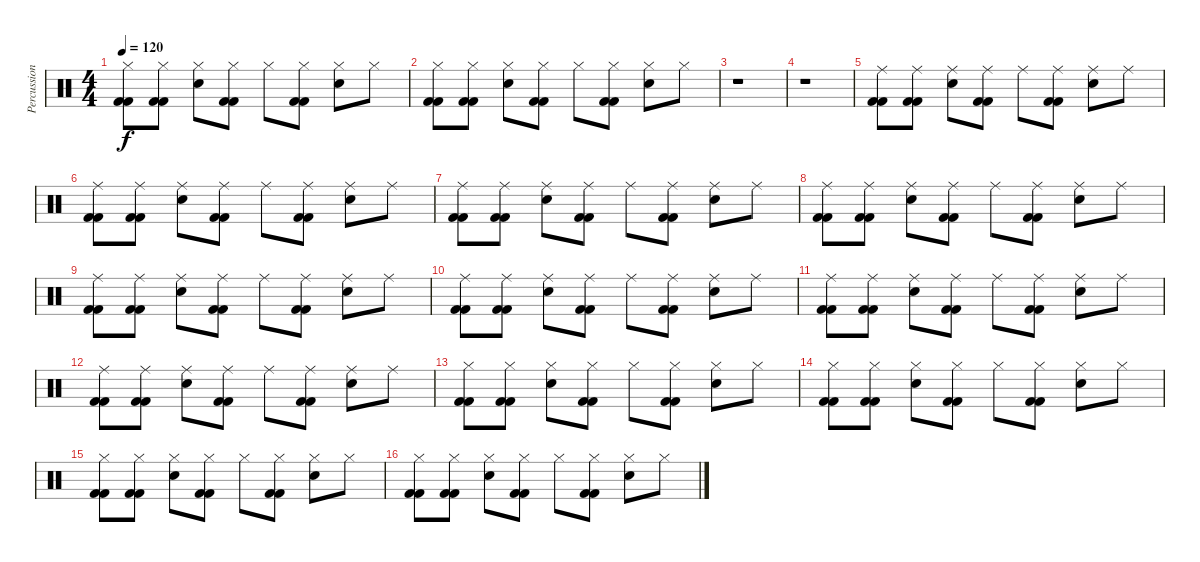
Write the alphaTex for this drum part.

\track ("Percussion" "Percussion") {instrument percussion}
\staff {score}
\articulation defaults
\ts (4 4)
\tempo 120
\clef neutral
\ks c
("Hi-Hat (closed)" "Kick (hit) 2" "Kick (hit) 2").8{dy f} ("Hi-Hat (closed)" "Kick (hit) 2" "Kick (hit) 2").8 ("Hi-Hat (closed)" "Snare (hit) 2").8 ("Hi-Hat (closed)" "Kick (hit) 2" "Kick (hit) 2").8 "Hi-Hat (closed)".8 ("Hi-Hat (closed)" "Kick (hit) 2" "Kick (hit) 2").8 ("Hi-Hat (closed)" "Snare (hit) 2").8 "Hi-Hat (closed)".8 |
("Hi-Hat (closed)" "Kick (hit) 2" "Kick (hit) 2").8 ("Hi-Hat (closed)" "Kick (hit) 2" "Kick (hit) 2").8 ("Hi-Hat (closed)" "Snare (hit) 2").8 ("Hi-Hat (closed)" "Kick (hit) 2" "Kick (hit) 2").8 "Hi-Hat (closed)".8 ("Hi-Hat (closed)" "Kick (hit) 2" "Kick (hit) 2").8 ("Hi-Hat (closed)" "Snare (hit) 2").8 "Hi-Hat (closed)".8 |
r.1 |
r.1 |
("Ride (middle)" "Kick (hit) 2" "Kick (hit) 2").8 ("Ride (middle)" "Kick (hit) 2" "Kick (hit) 2").8 ("Ride (middle)" "Snare (hit) 2").8 ("Ride (middle)" "Kick (hit) 2" "Kick (hit) 2").8 "Ride (middle)".8 ("Ride (middle)" "Kick (hit) 2" "Kick (hit) 2").8 ("Ride (middle)" "Snare (hit) 2").8 "Ride (middle)".8 |
("Ride (middle)" "Kick (hit) 2" "Kick (hit) 2").8 ("Ride (middle)" "Kick (hit) 2" "Kick (hit) 2").8 ("Ride (middle)" "Snare (hit) 2").8 ("Ride (middle)" "Kick (hit) 2" "Kick (hit) 2").8 "Ride (middle)".8 ("Ride (middle)" "Kick (hit) 2" "Kick (hit) 2").8 ("Ride (middle)" "Snare (hit) 2").8 "Ride (middle)".8 |
("Ride (middle)" "Kick (hit) 2" "Kick (hit) 2").8 ("Ride (middle)" "Kick (hit) 2" "Kick (hit) 2").8 ("Ride (middle)" "Snare (hit) 2").8 ("Ride (middle)" "Kick (hit) 2" "Kick (hit) 2").8 "Ride (middle)".8 ("Ride (middle)" "Kick (hit) 2" "Kick (hit) 2").8 ("Ride (middle)" "Snare (hit) 2").8 "Ride (middle)".8 |
("Ride (middle)" "Kick (hit) 2" "Kick (hit) 2").8 ("Ride (middle)" "Kick (hit) 2" "Kick (hit) 2").8 ("Ride (middle)" "Snare (hit) 2").8 ("Ride (middle)" "Kick (hit) 2" "Kick (hit) 2").8 "Ride (middle)".8 ("Ride (middle)" "Kick (hit) 2" "Kick (hit) 2").8 ("Ride (middle)" "Snare (hit) 2").8 "Ride (middle)".8 |
("Ride (middle)" "Kick (hit) 2" "Kick (hit) 2").8 ("Ride (middle)" "Kick (hit) 2" "Kick (hit) 2").8 ("Ride (middle)" "Snare (hit) 2").8 ("Ride (middle)" "Kick (hit) 2" "Kick (hit) 2").8 "Ride (middle)".8 ("Ride (middle)" "Kick (hit) 2" "Kick (hit) 2").8 ("Ride (middle)" "Snare (hit) 2").8 "Ride (middle)".8 |
("Ride (middle)" "Kick (hit) 2" "Kick (hit) 2").8 ("Ride (middle)" "Kick (hit) 2" "Kick (hit) 2").8 ("Ride (middle)" "Snare (hit) 2").8 ("Ride (middle)" "Kick (hit) 2" "Kick (hit) 2").8 "Ride (middle)".8 ("Ride (middle)" "Kick (hit) 2" "Kick (hit) 2").8 ("Ride (middle)" "Snare (hit) 2").8 "Ride (middle)".8 |
("Ride (middle)" "Kick (hit) 2" "Kick (hit) 2").8 ("Ride (middle)" "Kick (hit) 2" "Kick (hit) 2").8 ("Ride (middle)" "Snare (hit) 2").8 ("Ride (middle)" "Kick (hit) 2" "Kick (hit) 2").8 "Ride (middle)".8 ("Ride (middle)" "Kick (hit) 2" "Kick (hit) 2").8 ("Ride (middle)" "Snare (hit) 2").8 "Ride (middle)".8 |
("Ride (middle)" "Kick (hit) 2" "Kick (hit) 2").8 ("Ride (middle)" "Kick (hit) 2" "Kick (hit) 2").8 ("Ride (middle)" "Snare (hit) 2").8 ("Ride (middle)" "Kick (hit) 2" "Kick (hit) 2").8 "Ride (middle)".8 ("Ride (middle)" "Kick (hit) 2" "Kick (hit) 2").8 ("Ride (middle)" "Snare (hit) 2").8 "Ride (middle)".8 |
("Hi-Hat (closed)" "Kick (hit) 2" "Kick (hit) 2").8 ("Hi-Hat (closed)" "Kick (hit) 2" "Kick (hit) 2").8 ("Hi-Hat (closed)" "Snare (hit) 2").8 ("Hi-Hat (closed)" "Kick (hit) 2" "Kick (hit) 2").8 "Hi-Hat (closed)".8 ("Hi-Hat (closed)" "Kick (hit) 2" "Kick (hit) 2").8 ("Hi-Hat (closed)" "Snare (hit) 2").8 "Hi-Hat (closed)".8 |
("Hi-Hat (closed)" "Kick (hit) 2" "Kick (hit) 2").8 ("Hi-Hat (closed)" "Kick (hit) 2" "Kick (hit) 2").8 ("Hi-Hat (closed)" "Snare (hit) 2").8 ("Hi-Hat (closed)" "Kick (hit) 2" "Kick (hit) 2").8 "Hi-Hat (closed)".8 ("Hi-Hat (closed)" "Kick (hit) 2" "Kick (hit) 2").8 ("Hi-Hat (closed)" "Snare (hit) 2").8 "Hi-Hat (closed)".8 |
("Hi-Hat (closed)" "Kick (hit) 2" "Kick (hit) 2").8 ("Hi-Hat (closed)" "Kick (hit) 2" "Kick (hit) 2").8 ("Hi-Hat (closed)" "Snare (hit) 2").8 ("Hi-Hat (closed)" "Kick (hit) 2" "Kick (hit) 2").8 "Hi-Hat (closed)".8 ("Hi-Hat (closed)" "Kick (hit) 2" "Kick (hit) 2").8 ("Hi-Hat (closed)" "Snare (hit) 2").8 "Hi-Hat (closed)".8 |
("Hi-Hat (closed)" "Kick (hit) 2" "Kick (hit) 2").8 ("Hi-Hat (closed)" "Kick (hit) 2" "Kick (hit) 2").8 ("Hi-Hat (closed)" "Snare (hit) 2").8 ("Hi-Hat (closed)" "Kick (hit) 2" "Kick (hit) 2").8 "Hi-Hat (closed)".8 ("Hi-Hat (closed)" "Kick (hit) 2" "Kick (hit) 2").8 ("Hi-Hat (closed)" "Snare (hit) 2").8 "Hi-Hat (closed)".8
